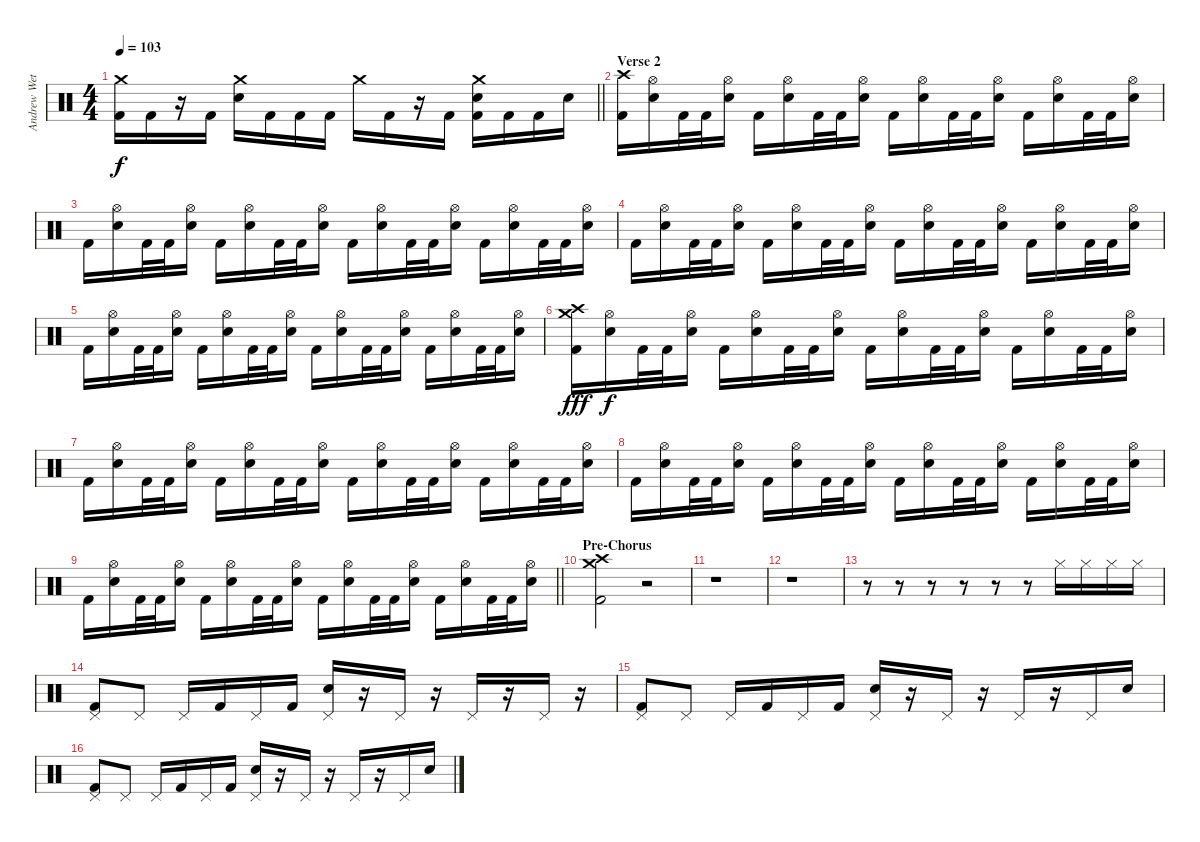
\track ("Andrew Wetzel - Drums" "Andrew Wet") {instrument percussion}
\staff {score}
\articulation defaults
\ts (4 4)
\tempo 103
\clef neutral
\barLineRight lightlight
\ks c
("Crash medium (hit)" "Kick (hit) 2").16{dy f} "Kick (hit) 2".16 r.16 "Kick (hit) 2".16 ("Crash medium (hit)" "Electric Snare (hit)").16 "Kick (hit) 2".16 "Kick (hit) 2".16 "Kick (hit) 2".16 "Crash medium (hit)".16 "Kick (hit) 2".16 r.16 "Kick (hit) 2".16 ("Crash medium (hit)" "Electric Snare (hit)" "Kick (hit) 2").16 "Kick (hit) 2".16 "Kick (hit) 2".16 "Electric Snare (hit)".16 |
\section ("" "Verse 2")
("Crash high (hit)" "Kick (hit) 2").16 ("Hi-Hat (open)" "Electric Snare (hit)").16 "Kick (hit) 2".32 "Kick (hit) 2".32 ("Hi-Hat (open)" "Electric Snare (hit)").16 "Kick (hit) 2".16 ("Hi-Hat (open)" "Electric Snare (hit)").16 "Kick (hit) 2".32 "Kick (hit) 2".32 ("Hi-Hat (open)" "Electric Snare (hit)").16 "Kick (hit) 2".16 ("Hi-Hat (open)" "Electric Snare (hit)").16 "Kick (hit) 2".32 "Kick (hit) 2".32 ("Hi-Hat (open)" "Electric Snare (hit)").16 "Kick (hit) 2".16 ("Hi-Hat (open)" "Electric Snare (hit)").16 "Kick (hit) 2".32 "Kick (hit) 2".32 ("Hi-Hat (open)" "Electric Snare (hit)").16 |
"Kick (hit) 2".16 ("Hi-Hat (open)" "Electric Snare (hit)").16 "Kick (hit) 2".32 "Kick (hit) 2".32 ("Hi-Hat (open)" "Electric Snare (hit)").16 "Kick (hit) 2".16 ("Hi-Hat (open)" "Electric Snare (hit)").16 "Kick (hit) 2".32 "Kick (hit) 2".32 ("Hi-Hat (open)" "Electric Snare (hit)").16 "Kick (hit) 2".16 ("Hi-Hat (open)" "Electric Snare (hit)").16 "Kick (hit) 2".32 "Kick (hit) 2".32 ("Hi-Hat (open)" "Electric Snare (hit)").16 "Kick (hit) 2".16 ("Hi-Hat (open)" "Electric Snare (hit)").16 "Kick (hit) 2".32 "Kick (hit) 2".32 ("Hi-Hat (open)" "Electric Snare (hit)").16 |
"Kick (hit) 2".16 ("Hi-Hat (open)" "Electric Snare (hit)").16 "Kick (hit) 2".32 "Kick (hit) 2".32 ("Hi-Hat (open)" "Electric Snare (hit)").16 "Kick (hit) 2".16 ("Hi-Hat (open)" "Electric Snare (hit)").16 "Kick (hit) 2".32 "Kick (hit) 2".32 ("Hi-Hat (open)" "Electric Snare (hit)").16 "Kick (hit) 2".16 ("Hi-Hat (open)" "Electric Snare (hit)").16 "Kick (hit) 2".32 "Kick (hit) 2".32 ("Hi-Hat (open)" "Electric Snare (hit)").16 "Kick (hit) 2".16 ("Hi-Hat (open)" "Electric Snare (hit)").16 "Kick (hit) 2".32 "Kick (hit) 2".32 ("Hi-Hat (open)" "Electric Snare (hit)").16 |
"Kick (hit) 2".16 ("Hi-Hat (open)" "Electric Snare (hit)").16 "Kick (hit) 2".32 "Kick (hit) 2".32 ("Hi-Hat (open)" "Electric Snare (hit)").16 "Kick (hit) 2".16 ("Hi-Hat (open)" "Electric Snare (hit)").16 "Kick (hit) 2".32 "Kick (hit) 2".32 ("Hi-Hat (open)" "Electric Snare (hit)").16 "Kick (hit) 2".16 ("Hi-Hat (open)" "Electric Snare (hit)").16 "Kick (hit) 2".32 "Kick (hit) 2".32 ("Hi-Hat (open)" "Electric Snare (hit)").16 "Kick (hit) 2".16 ("Hi-Hat (open)" "Electric Snare (hit)").16 "Kick (hit) 2".32 "Kick (hit) 2".32 ("Hi-Hat (open)" "Electric Snare (hit)").16 |
("Crash high (hit)" "Crash medium (hit)" "Kick (hit) 2").16{dy fff} ("Hi-Hat (open)" "Electric Snare (hit)").16{dy f} "Kick (hit) 2".32 "Kick (hit) 2".32 ("Hi-Hat (open)" "Electric Snare (hit)").16 "Kick (hit) 2".16 ("Hi-Hat (open)" "Electric Snare (hit)").16 "Kick (hit) 2".32 "Kick (hit) 2".32 ("Hi-Hat (open)" "Electric Snare (hit)").16 "Kick (hit) 2".16 ("Hi-Hat (open)" "Electric Snare (hit)").16 "Kick (hit) 2".32 "Kick (hit) 2".32 ("Hi-Hat (open)" "Electric Snare (hit)").16 "Kick (hit) 2".16 ("Hi-Hat (open)" "Electric Snare (hit)").16 "Kick (hit) 2".32 "Kick (hit) 2".32 ("Hi-Hat (open)" "Electric Snare (hit)").16 |
"Kick (hit) 2".16 ("Hi-Hat (open)" "Electric Snare (hit)").16 "Kick (hit) 2".32 "Kick (hit) 2".32 ("Hi-Hat (open)" "Electric Snare (hit)").16 "Kick (hit) 2".16 ("Hi-Hat (open)" "Electric Snare (hit)").16 "Kick (hit) 2".32 "Kick (hit) 2".32 ("Hi-Hat (open)" "Electric Snare (hit)").16 "Kick (hit) 2".16 ("Hi-Hat (open)" "Electric Snare (hit)").16 "Kick (hit) 2".32 "Kick (hit) 2".32 ("Hi-Hat (open)" "Electric Snare (hit)").16 "Kick (hit) 2".16 ("Hi-Hat (open)" "Electric Snare (hit)").16 "Kick (hit) 2".32 "Kick (hit) 2".32 ("Hi-Hat (open)" "Electric Snare (hit)").16 |
"Kick (hit) 2".16 ("Hi-Hat (open)" "Electric Snare (hit)").16 "Kick (hit) 2".32 "Kick (hit) 2".32 ("Hi-Hat (open)" "Electric Snare (hit)").16 "Kick (hit) 2".16 ("Hi-Hat (open)" "Electric Snare (hit)").16 "Kick (hit) 2".32 "Kick (hit) 2".32 ("Hi-Hat (open)" "Electric Snare (hit)").16 "Kick (hit) 2".16 ("Hi-Hat (open)" "Electric Snare (hit)").16 "Kick (hit) 2".32 "Kick (hit) 2".32 ("Hi-Hat (open)" "Electric Snare (hit)").16 "Kick (hit) 2".16 ("Hi-Hat (open)" "Electric Snare (hit)").16 "Kick (hit) 2".32 "Kick (hit) 2".32 ("Hi-Hat (open)" "Electric Snare (hit)").16 |
\barLineRight lightlight "Kick (hit) 2".16
("Hi-Hat (open)" "Electric Snare (hit)").16 "Kick (hit) 2".32 "Kick (hit) 2".32 ("Hi-Hat (open)" "Electric Snare (hit)").16 "Kick (hit) 2".16 ("Hi-Hat (open)" "Electric Snare (hit)").16 "Kick (hit) 2".32 "Kick (hit) 2".32 ("Hi-Hat (open)" "Electric Snare (hit)").16 "Kick (hit) 2".16 ("Hi-Hat (open)" "Electric Snare (hit)").16 "Kick (hit) 2".32 "Kick (hit) 2".32 ("Hi-Hat (open)" "Electric Snare (hit)").16 "Kick (hit) 2".16 ("Hi-Hat (open)" "Electric Snare (hit)").16 "Kick (hit) 2".32 "Kick (hit) 2".32 ("Hi-Hat (open)" "Electric Snare (hit)").16 |
\section ("" "Pre-Chorus")
("Crash medium (hit)" "Crash high (hit)" "Kick (hit) 2").2 r.2 |
r.1 |
r.1 |
r.8 r.8 r.8 r.8 r.8 r.8 "Hi-Hat (closed)".16 "Hi-Hat (closed)".16 "Hi-Hat (closed)".16 "Hi-Hat (closed)".16 |
("Pedal Hi-Hat (hit)" "Kick (hit) 2").8 "Pedal Hi-Hat (hit)".8 "Pedal Hi-Hat (hit)".16 "Kick (hit) 2".16 "Pedal Hi-Hat (hit)".16 "Kick (hit) 2".16 ("Pedal Hi-Hat (hit)" "Electric Snare (hit)").16 r.16 "Pedal Hi-Hat (hit)".16 r.16 "Pedal Hi-Hat (hit)".16 r.16 "Pedal Hi-Hat (hit)".16 r.16 |
("Pedal Hi-Hat (hit)" "Kick (hit) 2").8 "Pedal Hi-Hat (hit)".8 "Pedal Hi-Hat (hit)".16 "Kick (hit) 2".16 "Pedal Hi-Hat (hit)".16 "Kick (hit) 2".16 ("Pedal Hi-Hat (hit)" "Electric Snare (hit)").16 r.16 "Pedal Hi-Hat (hit)".16 r.16 "Pedal Hi-Hat (hit)".16 r.16 "Pedal Hi-Hat (hit)".16 "Electric Snare (hit)".16 |
("Pedal Hi-Hat (hit)" "Kick (hit) 2").8 "Pedal Hi-Hat (hit)".8 "Pedal Hi-Hat (hit)".16 "Kick (hit) 2".16 "Pedal Hi-Hat (hit)".16 "Kick (hit) 2".16 ("Pedal Hi-Hat (hit)" "Electric Snare (hit)").16 r.16 "Pedal Hi-Hat (hit)".16 r.16 "Pedal Hi-Hat (hit)".16 r.16 "Pedal Hi-Hat (hit)".16 "Electric Snare (hit)".16
